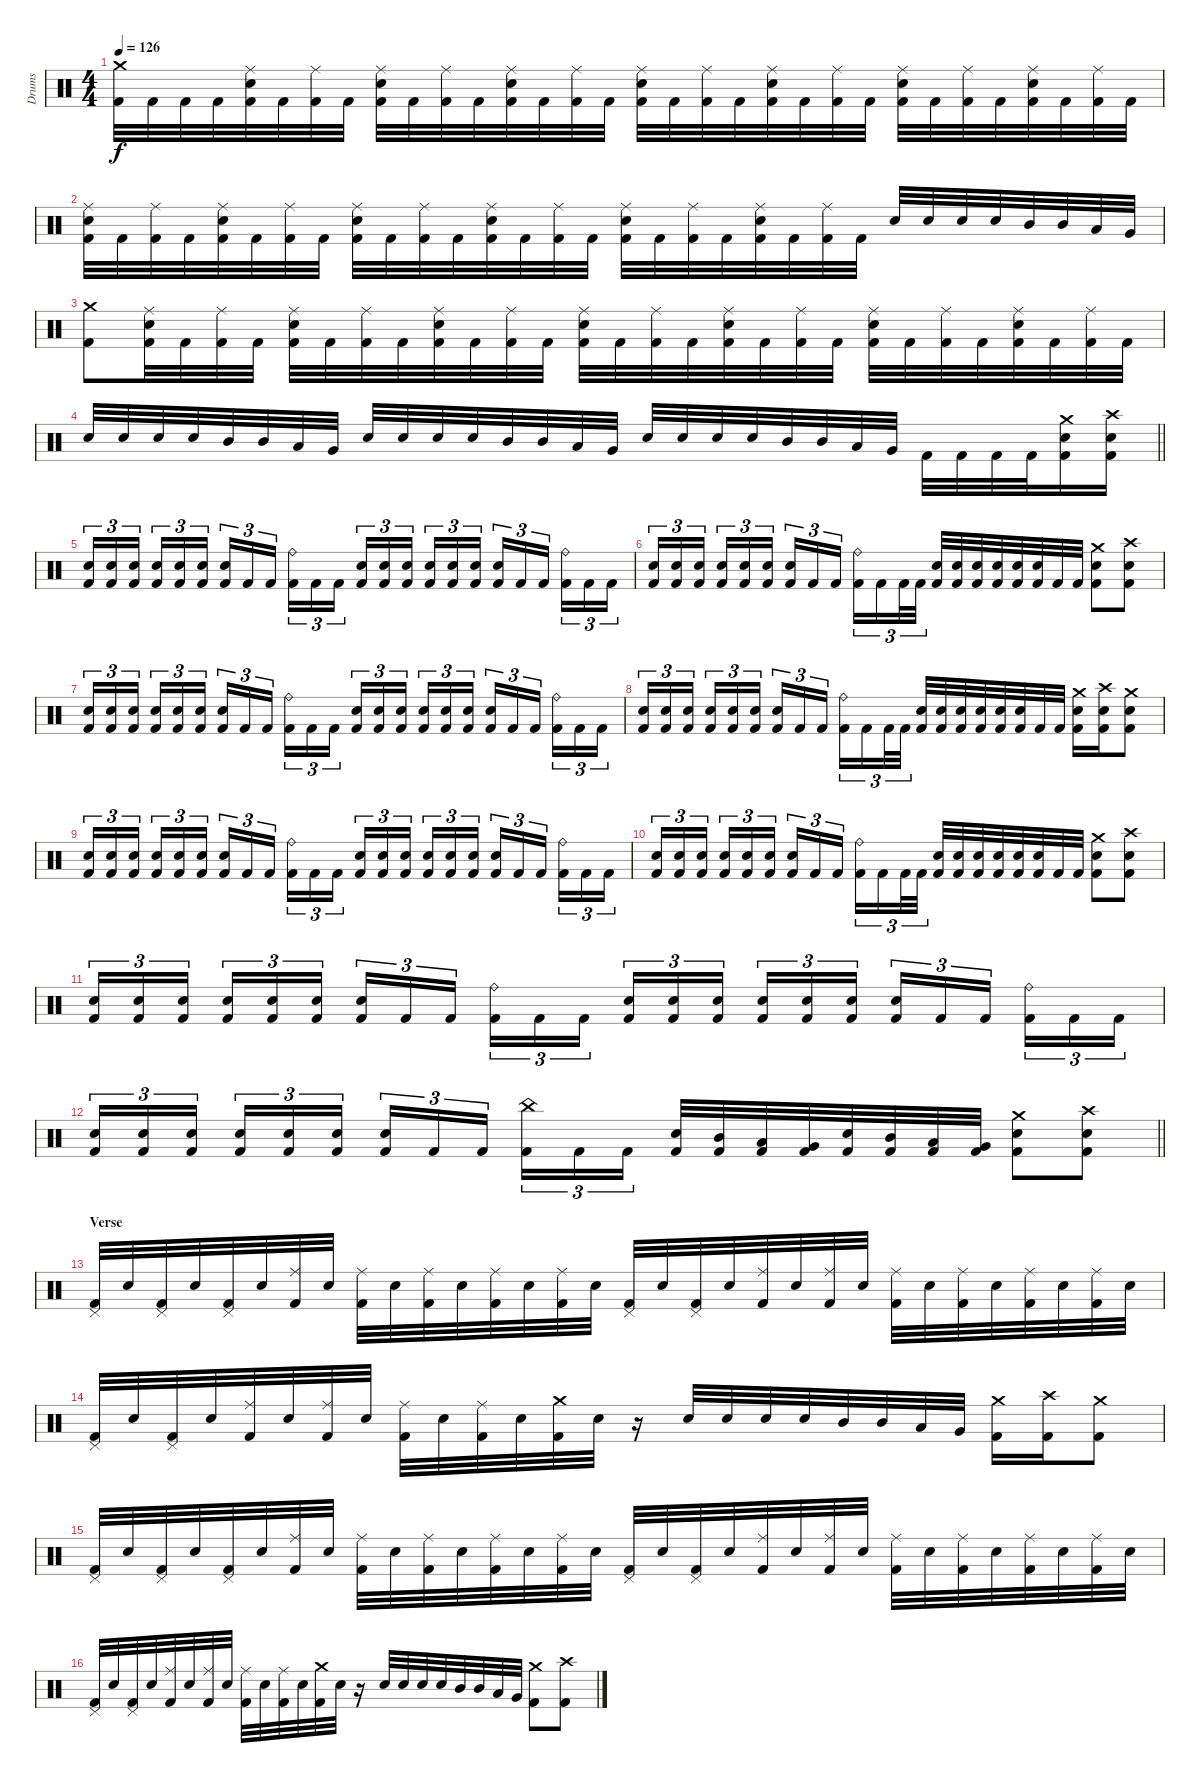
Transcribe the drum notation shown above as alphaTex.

\track ("Drums" "Drums") {instrument percussion}
\staff {score}
\articulation defaults
\ts (4 4)
\tempo 126
\clef neutral
\ks c
("Crash medium (hit)" "Kick (hit) 2").32{dy f} "Kick (hit) 2".32 "Kick (hit) 2".32 "Kick (hit) 2".32 ("Ride (middle)" "Electric Snare (hit)" "Kick (hit) 2").32 "Kick (hit) 2".32 ("Ride (middle)" "Kick (hit) 2").32 "Kick (hit) 2".32 ("Ride (middle)" "Electric Snare (hit)" "Kick (hit) 2").32 "Kick (hit) 2".32 ("Ride (middle)" "Kick (hit) 2").32 "Kick (hit) 2".32 ("Ride (middle)" "Electric Snare (hit)" "Kick (hit) 2").32 "Kick (hit) 2".32 ("Ride (middle)" "Kick (hit) 2").32 "Kick (hit) 2".32 ("Ride (middle)" "Electric Snare (hit)" "Kick (hit) 2").32 "Kick (hit) 2".32 ("Ride (middle)" "Kick (hit) 2").32 "Kick (hit) 2".32 ("Ride (middle)" "Electric Snare (hit)" "Kick (hit) 2").32 "Kick (hit) 2".32 ("Ride (middle)" "Kick (hit) 2").32 "Kick (hit) 2".32 ("Ride (middle)" "Electric Snare (hit)" "Kick (hit) 2").32 "Kick (hit) 2".32 ("Ride (middle)" "Kick (hit) 2").32 "Kick (hit) 2".32 ("Ride (middle)" "Electric Snare (hit)" "Kick (hit) 2").32 "Kick (hit) 2".32 ("Ride (middle)" "Kick (hit) 2").32 "Kick (hit) 2".32 |
("Ride (middle)" "Electric Snare (hit)" "Kick (hit) 2").32 "Kick (hit) 2".32 ("Ride (middle)" "Kick (hit) 2").32 "Kick (hit) 2".32 ("Ride (middle)" "Electric Snare (hit)" "Kick (hit) 2").32 "Kick (hit) 2".32 ("Ride (middle)" "Kick (hit) 2").32 "Kick (hit) 2".32 ("Ride (middle)" "Electric Snare (hit)" "Kick (hit) 2").32 "Kick (hit) 2".32 ("Ride (middle)" "Kick (hit) 2").32 "Kick (hit) 2".32 ("Ride (middle)" "Electric Snare (hit)" "Kick (hit) 2").32 "Kick (hit) 2".32 ("Ride (middle)" "Kick (hit) 2").32 "Kick (hit) 2".32 ("Ride (middle)" "Electric Snare (hit)" "Kick (hit) 2").32 "Kick (hit) 2".32 ("Ride (middle)" "Kick (hit) 2").32 "Kick (hit) 2".32 ("Ride (middle)" "Electric Snare (hit)" "Kick (hit) 2").32 "Kick (hit) 2".32 ("Ride (middle)" "Kick (hit) 2").32 "Kick (hit) 2".32 "Electric Snare (hit)".32 "Electric Snare (hit)".32 "Electric Snare (hit)".32 "Electric Snare (hit)".32 "Mid Tom (hit)".32 "Mid Tom (hit)".32 "Low Tom (hit)".32 "Very Low Tom (hit)".32 |
("Crash medium (hit)" "Kick (hit) 2").8 ("Ride (middle)" "Electric Snare (hit)" "Kick (hit) 2").32 "Kick (hit) 2".32 ("Ride (middle)" "Kick (hit) 2").32 "Kick (hit) 2".32 ("Ride (middle)" "Electric Snare (hit)" "Kick (hit) 2").32 "Kick (hit) 2".32 ("Ride (middle)" "Kick (hit) 2").32 "Kick (hit) 2".32 ("Ride (middle)" "Electric Snare (hit)" "Kick (hit) 2").32 "Kick (hit) 2".32 ("Ride (middle)" "Kick (hit) 2").32 "Kick (hit) 2".32 ("Ride (middle)" "Electric Snare (hit)" "Kick (hit) 2").32 "Kick (hit) 2".32 ("Ride (middle)" "Kick (hit) 2").32 "Kick (hit) 2".32 ("Ride (middle)" "Electric Snare (hit)" "Kick (hit) 2").32 "Kick (hit) 2".32 ("Ride (middle)" "Kick (hit) 2").32 "Kick (hit) 2".32 ("Ride (middle)" "Electric Snare (hit)" "Kick (hit) 2").32 "Kick (hit) 2".32 ("Ride (middle)" "Kick (hit) 2").32 "Kick (hit) 2".32 ("Ride (middle)" "Electric Snare (hit)" "Kick (hit) 2").32 "Kick (hit) 2".32 ("Ride (middle)" "Kick (hit) 2").32 "Kick (hit) 2".32 |
\barLineRight lightlight "Electric Snare (hit)".32 "Electric Snare (hit)".32 "Electric Snare (hit)".32 "Electric Snare (hit)".32 "Mid Tom (hit)".32 "Mid Tom (hit)".32 "Low Tom (hit)".32 "Very Low Tom (hit)".32 "Electric Snare (hit)".32 "Electric Snare (hit)".32 "Electric Snare (hit)".32 "Electric Snare (hit)".32 "Mid Tom (hit)".32 "Mid Tom (hit)".32 "Low Tom (hit)".32 "Very Low Tom (hit)".32 "Electric Snare (hit)".32 "Electric Snare (hit)".32 "Electric Snare (hit)".32 "Electric Snare (hit)".32 "Mid Tom (hit)".32 "Mid Tom (hit)".32 "Low Tom (hit)".32 "Very Low Tom (hit)".32 "Kick (hit) 2".32 "Kick (hit) 2".32 "Kick (hit) 2".32 "Kick (hit) 2".32
("Crash medium (hit)" "Electric Snare (hit)" "Kick (hit) 2").16 ("Crash high (hit)" "Electric Snare (hit)" "Kick (hit) 2").16 |
\section ("" "")
("Electric Snare (hit)" "Kick (hit) 2").16{tu (3 2)} ("Electric Snare (hit)" "Kick (hit) 2").16{tu (3 2)} ("Electric Snare (hit)" "Kick (hit) 2").16{tu (3 2) beam splitsecondary} ("Electric Snare (hit)" "Kick (hit) 2").16{tu (3 2)} ("Electric Snare (hit)" "Kick (hit) 2").16{tu (3 2)} ("Electric Snare (hit)" "Kick (hit) 2").16{tu (3 2)} ("Electric Snare (hit)" "Kick (hit) 2").16{tu (3 2)} "Kick (hit) 2".16{tu (3 2)} "Kick (hit) 2".16{tu (3 2) beam splitsecondary} ("Ride (bell)" "Kick (hit) 2").16{tu (3 2)} "Kick (hit) 2".16{tu (3 2)} "Kick (hit) 2".16{tu (3 2)} ("Electric Snare (hit)" "Kick (hit) 2").16{tu (3 2)} ("Electric Snare (hit)" "Kick (hit) 2").16{tu (3 2)} ("Electric Snare (hit)" "Kick (hit) 2").16{tu (3 2) beam splitsecondary} ("Electric Snare (hit)" "Kick (hit) 2").16{tu (3 2)} ("Electric Snare (hit)" "Kick (hit) 2").16{tu (3 2)} ("Electric Snare (hit)" "Kick (hit) 2").16{tu (3 2)} ("Electric Snare (hit)" "Kick (hit) 2").16{tu (3 2)} "Kick (hit) 2".16{tu (3 2)} "Kick (hit) 2".16{tu (3 2) beam splitsecondary} ("Ride (bell)" "Kick (hit) 2").16{tu (3 2)} "Kick (hit) 2".16{tu (3 2)} "Kick (hit) 2".16{tu (3 2)} |
("Electric Snare (hit)" "Kick (hit) 2").16{tu (3 2)} ("Electric Snare (hit)" "Kick (hit) 2").16{tu (3 2)} ("Electric Snare (hit)" "Kick (hit) 2").16{tu (3 2) beam splitsecondary} ("Electric Snare (hit)" "Kick (hit) 2").16{tu (3 2)} ("Electric Snare (hit)" "Kick (hit) 2").16{tu (3 2)} ("Electric Snare (hit)" "Kick (hit) 2").16{tu (3 2)} ("Electric Snare (hit)" "Kick (hit) 2").16{tu (3 2)} "Kick (hit) 2".16{tu (3 2)} "Kick (hit) 2".16{tu (3 2) beam splitsecondary} ("Ride (bell)" "Kick (hit) 2").16{tu (3 2)} "Kick (hit) 2".16{tu (3 2)} "Kick (hit) 2".32{tu (3 2)} "Kick (hit) 2".32{tu (3 2)} ("Electric Snare (hit)" "Kick (hit) 2").32 ("Electric Snare (hit)" "Kick (hit) 2").32 ("Electric Snare (hit)" "Kick (hit) 2").32 ("Electric Snare (hit)" "Kick (hit) 2").32 ("Electric Snare (hit)" "Kick (hit) 2").32 ("Electric Snare (hit)" "Kick (hit) 2").32 "Kick (hit) 2".32 "Kick (hit) 2".32 ("Crash medium (hit)" "Electric Snare (hit)" "Kick (hit) 2").8 ("Crash high (hit)" "Electric Snare (hit)" "Kick (hit) 2").8 |
("Electric Snare (hit)" "Kick (hit) 2").16{tu (3 2)} ("Electric Snare (hit)" "Kick (hit) 2").16{tu (3 2)} ("Electric Snare (hit)" "Kick (hit) 2").16{tu (3 2) beam splitsecondary} ("Electric Snare (hit)" "Kick (hit) 2").16{tu (3 2)} ("Electric Snare (hit)" "Kick (hit) 2").16{tu (3 2)} ("Electric Snare (hit)" "Kick (hit) 2").16{tu (3 2)} ("Electric Snare (hit)" "Kick (hit) 2").16{tu (3 2)} "Kick (hit) 2".16{tu (3 2)} "Kick (hit) 2".16{tu (3 2) beam splitsecondary} ("Ride (bell)" "Kick (hit) 2").16{tu (3 2)} "Kick (hit) 2".16{tu (3 2)} "Kick (hit) 2".16{tu (3 2)} ("Electric Snare (hit)" "Kick (hit) 2").16{tu (3 2)} ("Electric Snare (hit)" "Kick (hit) 2").16{tu (3 2)} ("Electric Snare (hit)" "Kick (hit) 2").16{tu (3 2) beam splitsecondary} ("Electric Snare (hit)" "Kick (hit) 2").16{tu (3 2)} ("Electric Snare (hit)" "Kick (hit) 2").16{tu (3 2)} ("Electric Snare (hit)" "Kick (hit) 2").16{tu (3 2)} ("Electric Snare (hit)" "Kick (hit) 2").16{tu (3 2)} "Kick (hit) 2".16{tu (3 2)} "Kick (hit) 2".16{tu (3 2) beam splitsecondary} ("Ride (bell)" "Kick (hit) 2").16{tu (3 2)} "Kick (hit) 2".16{tu (3 2)} "Kick (hit) 2".16{tu (3 2)} |
("Electric Snare (hit)" "Kick (hit) 2").16{tu (3 2)} ("Electric Snare (hit)" "Kick (hit) 2").16{tu (3 2)} ("Electric Snare (hit)" "Kick (hit) 2").16{tu (3 2) beam splitsecondary} ("Electric Snare (hit)" "Kick (hit) 2").16{tu (3 2)} ("Electric Snare (hit)" "Kick (hit) 2").16{tu (3 2)} ("Electric Snare (hit)" "Kick (hit) 2").16{tu (3 2)} ("Electric Snare (hit)" "Kick (hit) 2").16{tu (3 2)} "Kick (hit) 2".16{tu (3 2)} "Kick (hit) 2".16{tu (3 2) beam splitsecondary} ("Ride (bell)" "Kick (hit) 2").16{tu (3 2)} "Kick (hit) 2".16{tu (3 2)} "Kick (hit) 2".32{tu (3 2)} "Kick (hit) 2".32{tu (3 2)} ("Electric Snare (hit)" "Kick (hit) 2").32 ("Electric Snare (hit)" "Kick (hit) 2").32 ("Electric Snare (hit)" "Kick (hit) 2").32 ("Electric Snare (hit)" "Kick (hit) 2").32 ("Electric Snare (hit)" "Kick (hit) 2").32 ("Electric Snare (hit)" "Kick (hit) 2").32 "Kick (hit) 2".32 "Kick (hit) 2".32 ("Crash medium (hit)" "Electric Snare (hit)" "Kick (hit) 2").16 ("Crash high (hit)" "Electric Snare (hit)" "Kick (hit) 2").16 ("Crash medium (hit)" "Electric Snare (hit)" "Kick (hit) 2").8 |
("Electric Snare (hit)" "Kick (hit) 2").16{tu (3 2)} ("Electric Snare (hit)" "Kick (hit) 2").16{tu (3 2)} ("Electric Snare (hit)" "Kick (hit) 2").16{tu (3 2) beam splitsecondary} ("Electric Snare (hit)" "Kick (hit) 2").16{tu (3 2)} ("Electric Snare (hit)" "Kick (hit) 2").16{tu (3 2)} ("Electric Snare (hit)" "Kick (hit) 2").16{tu (3 2)} ("Electric Snare (hit)" "Kick (hit) 2").16{tu (3 2)} "Kick (hit) 2".16{tu (3 2)} "Kick (hit) 2".16{tu (3 2) beam splitsecondary} ("Ride (bell)" "Kick (hit) 2").16{tu (3 2)} "Kick (hit) 2".16{tu (3 2)} "Kick (hit) 2".16{tu (3 2)} ("Electric Snare (hit)" "Kick (hit) 2").16{tu (3 2)} ("Electric Snare (hit)" "Kick (hit) 2").16{tu (3 2)} ("Electric Snare (hit)" "Kick (hit) 2").16{tu (3 2) beam splitsecondary} ("Electric Snare (hit)" "Kick (hit) 2").16{tu (3 2)} ("Electric Snare (hit)" "Kick (hit) 2").16{tu (3 2)} ("Electric Snare (hit)" "Kick (hit) 2").16{tu (3 2)} ("Electric Snare (hit)" "Kick (hit) 2").16{tu (3 2)} "Kick (hit) 2".16{tu (3 2)} "Kick (hit) 2".16{tu (3 2) beam splitsecondary} ("Ride (bell)" "Kick (hit) 2").16{tu (3 2)} "Kick (hit) 2".16{tu (3 2)} "Kick (hit) 2".16{tu (3 2)} |
("Electric Snare (hit)" "Kick (hit) 2").16{tu (3 2)} ("Electric Snare (hit)" "Kick (hit) 2").16{tu (3 2)} ("Electric Snare (hit)" "Kick (hit) 2").16{tu (3 2) beam splitsecondary} ("Electric Snare (hit)" "Kick (hit) 2").16{tu (3 2)} ("Electric Snare (hit)" "Kick (hit) 2").16{tu (3 2)} ("Electric Snare (hit)" "Kick (hit) 2").16{tu (3 2)} ("Electric Snare (hit)" "Kick (hit) 2").16{tu (3 2)} "Kick (hit) 2".16{tu (3 2)} "Kick (hit) 2".16{tu (3 2) beam splitsecondary} ("Ride (bell)" "Kick (hit) 2").16{tu (3 2)} "Kick (hit) 2".16{tu (3 2)} "Kick (hit) 2".32{tu (3 2)} "Kick (hit) 2".32{tu (3 2)} ("Electric Snare (hit)" "Kick (hit) 2").32 ("Electric Snare (hit)" "Kick (hit) 2").32 ("Electric Snare (hit)" "Kick (hit) 2").32 ("Electric Snare (hit)" "Kick (hit) 2").32 ("Electric Snare (hit)" "Kick (hit) 2").32 ("Electric Snare (hit)" "Kick (hit) 2").32 "Kick (hit) 2".32 "Kick (hit) 2".32 ("Crash medium (hit)" "Electric Snare (hit)" "Kick (hit) 2").8 ("Crash high (hit)" "Electric Snare (hit)" "Kick (hit) 2").8 |
("Electric Snare (hit)" "Kick (hit) 2").16{tu (3 2)} ("Electric Snare (hit)" "Kick (hit) 2").16{tu (3 2)} ("Electric Snare (hit)" "Kick (hit) 2").16{tu (3 2) beam splitsecondary} ("Electric Snare (hit)" "Kick (hit) 2").16{tu (3 2)} ("Electric Snare (hit)" "Kick (hit) 2").16{tu (3 2)} ("Electric Snare (hit)" "Kick (hit) 2").16{tu (3 2)} ("Electric Snare (hit)" "Kick (hit) 2").16{tu (3 2)} "Kick (hit) 2".16{tu (3 2)} "Kick (hit) 2".16{tu (3 2) beam splitsecondary} ("Ride (bell)" "Kick (hit) 2").16{tu (3 2)} "Kick (hit) 2".16{tu (3 2)} "Kick (hit) 2".16{tu (3 2)} ("Electric Snare (hit)" "Kick (hit) 2").16{tu (3 2)} ("Electric Snare (hit)" "Kick (hit) 2").16{tu (3 2)} ("Electric Snare (hit)" "Kick (hit) 2").16{tu (3 2) beam splitsecondary} ("Electric Snare (hit)" "Kick (hit) 2").16{tu (3 2)} ("Electric Snare (hit)" "Kick (hit) 2").16{tu (3 2)} ("Electric Snare (hit)" "Kick (hit) 2").16{tu (3 2)} ("Electric Snare (hit)" "Kick (hit) 2").16{tu (3 2)} "Kick (hit) 2".16{tu (3 2)} "Kick (hit) 2".16{tu (3 2) beam splitsecondary} ("Ride (bell)" "Kick (hit) 2").16{tu (3 2)} "Kick (hit) 2".16{tu (3 2)} "Kick (hit) 2".16{tu (3 2)} |
\barLineRight lightlight
("Electric Snare (hit)" "Kick (hit) 2").16{tu (3 2)} ("Electric Snare (hit)" "Kick (hit) 2").16{tu (3 2)} ("Electric Snare (hit)" "Kick (hit) 2").16{tu (3 2) beam splitsecondary} ("Electric Snare (hit)" "Kick (hit) 2").16{tu (3 2)} ("Electric Snare (hit)" "Kick (hit) 2").16{tu (3 2)} ("Electric Snare (hit)" "Kick (hit) 2").16{tu (3 2)} ("Electric Snare (hit)" "Kick (hit) 2").16{tu (3 2)} "Kick (hit) 2".16{tu (3 2)} "Kick (hit) 2".16{tu (3 2) beam splitsecondary} ("China (hit)" "Kick (hit) 2").16{tu (3 2)} "Kick (hit) 2".16{tu (3 2)} "Kick (hit) 2".16{tu (3 2)} ("Electric Snare (hit)" "Kick (hit) 2").32 ("Mid Tom (hit)" "Kick (hit) 2").32 ("Low Tom (hit)" "Kick (hit) 2").32 ("Very Low Tom (hit)" "Kick (hit) 2").32 ("Electric Snare (hit)" "Kick (hit) 2").32 ("Mid Tom (hit)" "Kick (hit) 2").32 ("Low Tom (hit)" "Kick (hit) 2").32 ("Very Low Tom (hit)" "Kick (hit) 2").32 ("Crash medium (hit)" "Electric Snare (hit)" "Kick (hit) 2").8 ("Crash high (hit)" "Electric Snare (hit)" "Kick (hit) 2").8 |
\section ("" "Verse")
("Pedal Hi-Hat (hit)" "Kick (hit) 2").32 "Electric Snare (hit)".32 ("Pedal Hi-Hat (hit)" "Kick (hit) 2").32 "Electric Snare (hit)".32 ("Pedal Hi-Hat (hit)" "Kick (hit) 2").32 "Electric Snare (hit)".32 ("Ride (middle)" "Kick (hit) 2").32 "Electric Snare (hit)".32 ("Ride (middle)" "Kick (hit) 2").32 "Electric Snare (hit)".32 ("Ride (middle)" "Kick (hit) 2").32 "Electric Snare (hit)".32 ("Ride (middle)" "Kick (hit) 2").32 "Electric Snare (hit)".32 ("Ride (middle)" "Kick (hit) 2").32 "Electric Snare (hit)".32 ("Pedal Hi-Hat (hit)" "Kick (hit) 2").32 "Electric Snare (hit)".32 ("Pedal Hi-Hat (hit)" "Kick (hit) 2").32 "Electric Snare (hit)".32 ("Ride (middle)" "Kick (hit) 2").32 "Electric Snare (hit)".32 ("Ride (middle)" "Kick (hit) 2").32 "Electric Snare (hit)".32 ("Ride (middle)" "Kick (hit) 2").32 "Electric Snare (hit)".32 ("Ride (middle)" "Kick (hit) 2").32 "Electric Snare (hit)".32 ("Ride (middle)" "Kick (hit) 2").32 "Electric Snare (hit)".32 ("Ride (middle)" "Kick (hit) 2").32 "Electric Snare (hit)".32 |
("Pedal Hi-Hat (hit)" "Kick (hit) 2").32 "Electric Snare (hit)".32 ("Pedal Hi-Hat (hit)" "Kick (hit) 2").32 "Electric Snare (hit)".32 ("Ride (middle)" "Kick (hit) 2").32 "Electric Snare (hit)".32 ("Ride (middle)" "Kick (hit) 2").32 "Electric Snare (hit)".32 ("Ride (middle)" "Kick (hit) 2").32 "Electric Snare (hit)".32 ("Ride (middle)" "Kick (hit) 2").32 "Electric Snare (hit)".32 ("Crash medium (hit)" "Kick (hit) 2").32 "Electric Snare (hit)".32 r.16 "Electric Snare (hit)".32 "Electric Snare (hit)".32 "Electric Snare (hit)".32 "Electric Snare (hit)".32 "Mid Tom (hit)".32 "Mid Tom (hit)".32 "Low Tom (hit)".32 "Very Low Tom (hit)".32 ("Crash medium (hit)" "Kick (hit) 2").16 ("Crash high (hit)" "Kick (hit) 2").16 ("Crash medium (hit)" "Kick (hit) 2").8 |
("Pedal Hi-Hat (hit)" "Kick (hit) 2").32 "Electric Snare (hit)".32 ("Pedal Hi-Hat (hit)" "Kick (hit) 2").32 "Electric Snare (hit)".32 ("Pedal Hi-Hat (hit)" "Kick (hit) 2").32 "Electric Snare (hit)".32 ("Ride (middle)" "Kick (hit) 2").32 "Electric Snare (hit)".32 ("Ride (middle)" "Kick (hit) 2").32 "Electric Snare (hit)".32 ("Ride (middle)" "Kick (hit) 2").32 "Electric Snare (hit)".32 ("Ride (middle)" "Kick (hit) 2").32 "Electric Snare (hit)".32 ("Ride (middle)" "Kick (hit) 2").32 "Electric Snare (hit)".32 ("Pedal Hi-Hat (hit)" "Kick (hit) 2").32 "Electric Snare (hit)".32 ("Pedal Hi-Hat (hit)" "Kick (hit) 2").32 "Electric Snare (hit)".32 ("Ride (middle)" "Kick (hit) 2").32 "Electric Snare (hit)".32 ("Ride (middle)" "Kick (hit) 2").32 "Electric Snare (hit)".32 ("Ride (middle)" "Kick (hit) 2").32 "Electric Snare (hit)".32 ("Ride (middle)" "Kick (hit) 2").32 "Electric Snare (hit)".32 ("Ride (middle)" "Kick (hit) 2").32 "Electric Snare (hit)".32 ("Ride (middle)" "Kick (hit) 2").32 "Electric Snare (hit)".32 |
("Pedal Hi-Hat (hit)" "Kick (hit) 2").32 "Electric Snare (hit)".32 ("Pedal Hi-Hat (hit)" "Kick (hit) 2").32 "Electric Snare (hit)".32 ("Ride (middle)" "Kick (hit) 2").32 "Electric Snare (hit)".32 ("Ride (middle)" "Kick (hit) 2").32 "Electric Snare (hit)".32 ("Ride (middle)" "Kick (hit) 2").32 "Electric Snare (hit)".32 ("Ride (middle)" "Kick (hit) 2").32 "Electric Snare (hit)".32 ("Crash medium (hit)" "Kick (hit) 2").32 "Electric Snare (hit)".32 r.16 "Electric Snare (hit)".32 "Electric Snare (hit)".32 "Electric Snare (hit)".32 "Electric Snare (hit)".32 "Mid Tom (hit)".32 "Mid Tom (hit)".32 "Low Tom (hit)".32 "Very Low Tom (hit)".32 ("Crash medium (hit)" "Kick (hit) 2").8 ("Crash high (hit)" "Kick (hit) 2").8
